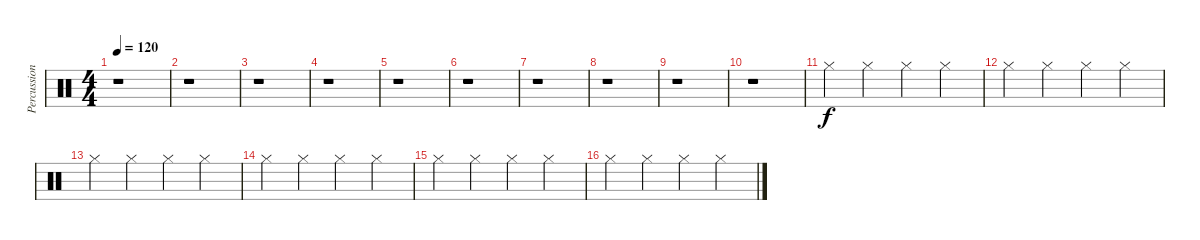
\track ("Percussion" "Percussion") {instrument percussion}
\staff {score}
\articulation defaults
\ts (4 4)
\tempo 120
\clef neutral
\ks c
r.1{dy f} |
r.1 |
r.1 |
r.1 |
r.1 |
r.1 |
r.1 |
r.1 |
r.1 |
r.1 |
"Hi-Hat (closed)".4 "Hi-Hat (closed)".4 "Hi-Hat (closed)".4 "Hi-Hat (closed)".4 |
"Hi-Hat (closed)".4 "Hi-Hat (closed)".4 "Hi-Hat (closed)".4 "Hi-Hat (closed)".4 |
"Hi-Hat (closed)".4 "Hi-Hat (closed)".4 "Hi-Hat (closed)".4 "Hi-Hat (closed)".4 |
"Hi-Hat (closed)".4 "Hi-Hat (closed)".4 "Hi-Hat (closed)".4 "Hi-Hat (closed)".4 |
"Hi-Hat (closed)".4 "Hi-Hat (closed)".4 "Hi-Hat (closed)".4 "Hi-Hat (closed)".4 |
"Hi-Hat (closed)".4 "Hi-Hat (closed)".4 "Hi-Hat (closed)".4 "Hi-Hat (closed)".4
